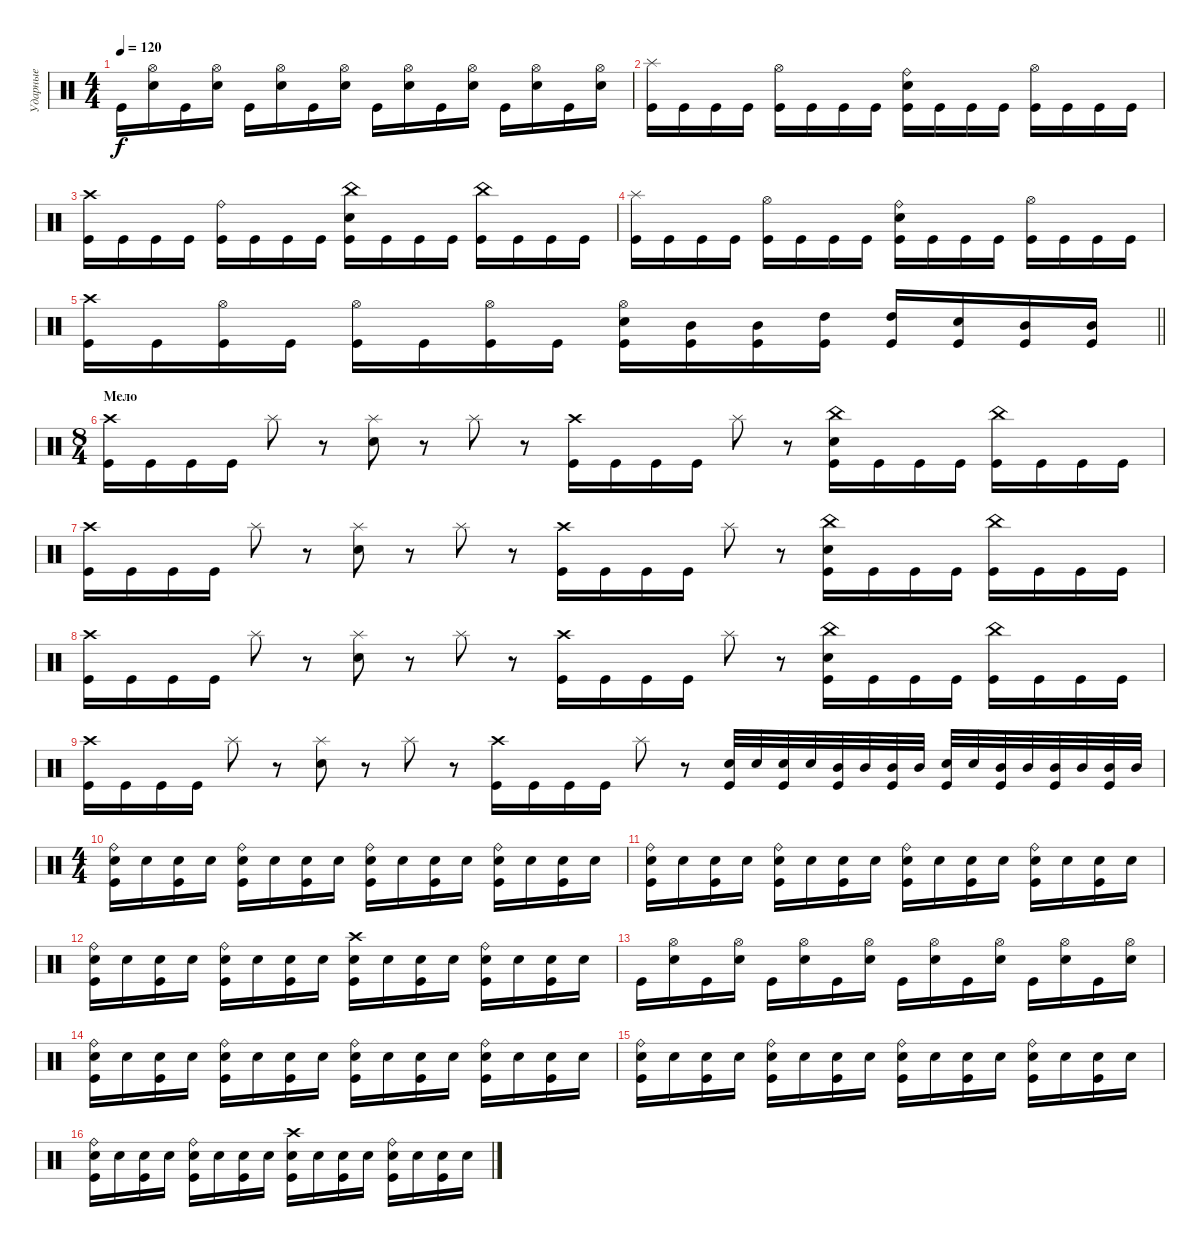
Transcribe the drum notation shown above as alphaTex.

\track ("Ударные" "Ударные") {instrument percussion}
\staff {score}
\articulation defaults
\ts (4 4)
\tempo 120
\clef neutral
\ks c "Kick (hit)".16{dy f}
("Snare (hit) 2" "Hi-Hat (open)").16 "Kick (hit)".16 ("Snare (hit) 2" "Hi-Hat (open)").16 "Kick (hit)".16 ("Snare (hit) 2" "Hi-Hat (open)").16 "Kick (hit)".16 ("Snare (hit) 2" "Hi-Hat (open)").16 "Kick (hit)".16 ("Snare (hit) 2" "Hi-Hat (open)").16 "Kick (hit)".16 ("Snare (hit) 2" "Hi-Hat (open)").16 "Kick (hit)".16 ("Snare (hit) 2" "Hi-Hat (open)").16 "Kick (hit)".16 ("Snare (hit) 2" "Hi-Hat (open)").16 |
("Kick (hit)" "Splash (hit)").16 "Kick (hit)".16 "Kick (hit)".16 "Kick (hit)".16 ("Kick (hit)" "Hi-Hat (open)").16 "Kick (hit)".16 "Kick (hit)".16 "Kick (hit)".16 ("Snare (hit) 2" "Kick (hit)" "Ride (bell)").16 "Kick (hit)".16 "Kick (hit)".16 "Kick (hit)".16 ("Kick (hit)" "Hi-Hat (open)").16 "Kick (hit)".16 "Kick (hit)".16 "Kick (hit)".16 |
("Kick (hit)" "Crash high (hit)").16 "Kick (hit)".16 "Kick (hit)".16 "Kick (hit)".16 ("Kick (hit)" "Ride (bell)").16 "Kick (hit)".16 "Kick (hit)".16 "Kick (hit)".16 ("Snare (hit) 2" "Kick (hit)" "China (hit)").16 "Kick (hit)".16 "Kick (hit)".16 "Kick (hit)".16 ("Kick (hit)" "China (hit)").16 "Kick (hit)".16 "Kick (hit)".16 "Kick (hit)".16 |
("Kick (hit)" "Splash (hit)").16 "Kick (hit)".16 "Kick (hit)".16 "Kick (hit)".16 ("Kick (hit)" "Hi-Hat (open)").16 "Kick (hit)".16 "Kick (hit)".16 "Kick (hit)".16 ("Snare (hit) 2" "Kick (hit)" "Ride (bell)").16 "Kick (hit)".16 "Kick (hit)".16 "Kick (hit)".16 ("Kick (hit)" "Hi-Hat (open)").16 "Kick (hit)".16 "Kick (hit)".16 "Kick (hit)".16 |
\barLineRight lightlight
("Kick (hit)" "Crash high (hit)").16 "Kick (hit)".16 ("Kick (hit)" "Hi-Hat (open)").16 "Kick (hit)".16 ("Kick (hit)" "Hi-Hat (open)").16 "Kick (hit)".16 ("Kick (hit)" "Hi-Hat (open)").16 "Kick (hit)".16 ("Snare (hit) 2" "Kick (hit)" "Hi-Hat (open)").16 ("Mid Tom (hit)" "Kick (hit)").16 ("Mid Tom (hit)" "Kick (hit)").16 ("High Tom (hit)" "Kick (hit)").16 ("High Tom (hit)" "Kick (hit)").16 ("Snare (hit) 2" "Kick (hit)").16 ("Mid Tom (hit)" "Kick (hit)").16 ("Mid Tom (hit)" "Kick (hit)").16 |
\ts (8 4)
\section ("" "Мело")
("Kick (hit)" "Crash high (hit)").16 "Kick (hit)".16 "Kick (hit)".16 "Kick (hit)".16 "Splash (hit)".8 r.8 ("Snare (hit) 2" "Splash (hit)").8 r.8 "Splash (hit)".8 r.8 ("Kick (hit)" "Crash high (hit)").16 "Kick (hit)".16 "Kick (hit)".16 "Kick (hit)".16 "Splash (hit)".8 r.8 ("Kick (hit)" "Snare (hit) 2" "China (hit)").16 "Kick (hit)".16 "Kick (hit)".16 "Kick (hit)".16 ("Kick (hit)" "China (hit)").16 "Kick (hit)".16 "Kick (hit)".16 "Kick (hit)".16 |
("Kick (hit)" "Crash high (hit)").16 "Kick (hit)".16 "Kick (hit)".16 "Kick (hit)".16 "Splash (hit)".8 r.8 ("Snare (hit) 2" "Splash (hit)").8 r.8 "Splash (hit)".8 r.8 ("Kick (hit)" "Crash high (hit)").16 "Kick (hit)".16 "Kick (hit)".16 "Kick (hit)".16 "Splash (hit)".8 r.8 ("Kick (hit)" "Snare (hit) 2" "China (hit)").16 "Kick (hit)".16 "Kick (hit)".16 "Kick (hit)".16 ("Kick (hit)" "China (hit)").16 "Kick (hit)".16 "Kick (hit)".16 "Kick (hit)".16 |
("Kick (hit)" "Crash high (hit)").16 "Kick (hit)".16 "Kick (hit)".16 "Kick (hit)".16 "Splash (hit)".8 r.8 ("Snare (hit) 2" "Splash (hit)").8 r.8 "Splash (hit)".8 r.8 ("Kick (hit)" "Crash high (hit)").16 "Kick (hit)".16 "Kick (hit)".16 "Kick (hit)".16 "Splash (hit)".8 r.8 ("Kick (hit)" "Snare (hit) 2" "China (hit)").16 "Kick (hit)".16 "Kick (hit)".16 "Kick (hit)".16 ("Kick (hit)" "China (hit)").16 "Kick (hit)".16 "Kick (hit)".16 "Kick (hit)".16 |
("Kick (hit)" "Crash high (hit)").16 "Kick (hit)".16 "Kick (hit)".16 "Kick (hit)".16 "Splash (hit)".8 r.8 ("Snare (hit) 2" "Splash (hit)").8 r.8 "Splash (hit)".8 r.8 ("Kick (hit)" "Crash high (hit)").16 "Kick (hit)".16 "Kick (hit)".16 "Kick (hit)".16 "Splash (hit)".8 r.8 ("Snare (hit) 2" "Kick (hit)").32 "Snare (hit) 2".32 ("Snare (hit) 2" "Kick (hit)").32 "Snare (hit) 2".32 ("Mid Tom (hit)" "Kick (hit)").32 "Mid Tom (hit)".32 ("Mid Tom (hit)" "Kick (hit)").32 "Mid Tom (hit)".32 ("Snare (hit) 2" "Kick (hit)").32 "Snare (hit) 2".32 ("Mid Tom (hit)" "Kick (hit)").32 "Mid Tom (hit)".32 ("Mid Tom (hit)" "Kick (hit)").32 "Mid Tom (hit)".32 ("Mid Tom (hit)" "Kick (hit)").32 "Mid Tom (hit)".32 |
\ts (4 4)
("Ride (bell)" "Snare (hit) 2" "Kick (hit)").16 "Snare (hit) 2".16 ("Snare (hit) 2" "Kick (hit)").16 "Snare (hit) 2".16 ("Ride (bell)" "Snare (hit) 2" "Kick (hit)").16 "Snare (hit) 2".16 ("Snare (hit) 2" "Kick (hit)").16 "Snare (hit) 2".16 ("Ride (bell)" "Snare (hit) 2" "Kick (hit)").16 "Snare (hit) 2".16 ("Snare (hit) 2" "Kick (hit)").16 "Snare (hit) 2".16 ("Ride (bell)" "Snare (hit) 2" "Kick (hit)").16 "Snare (hit) 2".16 ("Snare (hit) 2" "Kick (hit)").16 "Snare (hit) 2".16 |
("Ride (bell)" "Snare (hit) 2" "Kick (hit)").16 "Snare (hit) 2".16 ("Snare (hit) 2" "Kick (hit)").16 "Snare (hit) 2".16 ("Ride (bell)" "Snare (hit) 2" "Kick (hit)").16 "Snare (hit) 2".16 ("Snare (hit) 2" "Kick (hit)").16 "Snare (hit) 2".16 ("Ride (bell)" "Snare (hit) 2" "Kick (hit)").16 "Snare (hit) 2".16 ("Snare (hit) 2" "Kick (hit)").16 "Snare (hit) 2".16 ("Ride (bell)" "Snare (hit) 2" "Kick (hit)").16 "Snare (hit) 2".16 ("Snare (hit) 2" "Kick (hit)").16 "Snare (hit) 2".16 |
("Ride (bell)" "Snare (hit) 2" "Kick (hit)").16 "Snare (hit) 2".16 ("Snare (hit) 2" "Kick (hit)").16 "Snare (hit) 2".16 ("Ride (bell)" "Snare (hit) 2" "Kick (hit)").16 "Snare (hit) 2".16 ("Snare (hit) 2" "Kick (hit)").16 "Snare (hit) 2".16 ("Crash high (hit)" "Snare (hit) 2" "Kick (hit)").16 "Snare (hit) 2".16 ("Snare (hit) 2" "Kick (hit)").16 "Snare (hit) 2".16 ("Ride (bell)" "Snare (hit) 2" "Kick (hit)").16 "Snare (hit) 2".16 ("Snare (hit) 2" "Kick (hit)").16 "Snare (hit) 2".16 |
"Kick (hit)".16 ("Snare (hit) 2" "Hi-Hat (open)").16 "Kick (hit)".16 ("Snare (hit) 2" "Hi-Hat (open)").16 "Kick (hit)".16 ("Snare (hit) 2" "Hi-Hat (open)").16 "Kick (hit)".16 ("Snare (hit) 2" "Hi-Hat (open)").16 "Kick (hit)".16 ("Snare (hit) 2" "Hi-Hat (open)").16 "Kick (hit)".16 ("Snare (hit) 2" "Hi-Hat (open)").16 "Kick (hit)".16 ("Snare (hit) 2" "Hi-Hat (open)").16 "Kick (hit)".16 ("Snare (hit) 2" "Hi-Hat (open)").16 |
("Ride (bell)" "Snare (hit) 2" "Kick (hit)").16 "Snare (hit) 2".16 ("Snare (hit) 2" "Kick (hit)").16 "Snare (hit) 2".16 ("Ride (bell)" "Snare (hit) 2" "Kick (hit)").16 "Snare (hit) 2".16 ("Snare (hit) 2" "Kick (hit)").16 "Snare (hit) 2".16 ("Ride (bell)" "Snare (hit) 2" "Kick (hit)").16 "Snare (hit) 2".16 ("Snare (hit) 2" "Kick (hit)").16 "Snare (hit) 2".16 ("Ride (bell)" "Snare (hit) 2" "Kick (hit)").16 "Snare (hit) 2".16 ("Snare (hit) 2" "Kick (hit)").16 "Snare (hit) 2".16 |
("Ride (bell)" "Snare (hit) 2" "Kick (hit)").16 "Snare (hit) 2".16 ("Snare (hit) 2" "Kick (hit)").16 "Snare (hit) 2".16 ("Ride (bell)" "Snare (hit) 2" "Kick (hit)").16 "Snare (hit) 2".16 ("Snare (hit) 2" "Kick (hit)").16 "Snare (hit) 2".16 ("Ride (bell)" "Snare (hit) 2" "Kick (hit)").16 "Snare (hit) 2".16 ("Snare (hit) 2" "Kick (hit)").16 "Snare (hit) 2".16 ("Ride (bell)" "Snare (hit) 2" "Kick (hit)").16 "Snare (hit) 2".16 ("Snare (hit) 2" "Kick (hit)").16 "Snare (hit) 2".16 |
("Ride (bell)" "Snare (hit) 2" "Kick (hit)").16 "Snare (hit) 2".16 ("Snare (hit) 2" "Kick (hit)").16 "Snare (hit) 2".16 ("Ride (bell)" "Snare (hit) 2" "Kick (hit)").16 "Snare (hit) 2".16 ("Snare (hit) 2" "Kick (hit)").16 "Snare (hit) 2".16 ("Crash high (hit)" "Snare (hit) 2" "Kick (hit)").16 "Snare (hit) 2".16 ("Snare (hit) 2" "Kick (hit)").16 "Snare (hit) 2".16 ("Ride (bell)" "Snare (hit) 2" "Kick (hit)").16 "Snare (hit) 2".16 ("Snare (hit) 2" "Kick (hit)").16 "Snare (hit) 2".16
